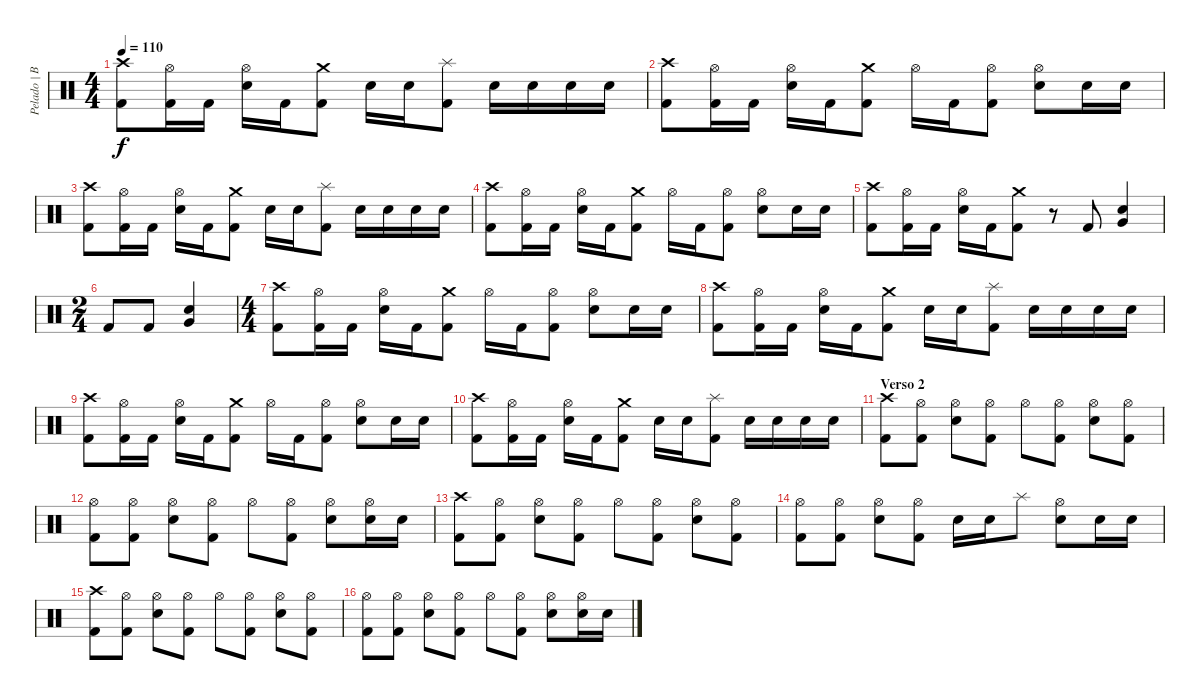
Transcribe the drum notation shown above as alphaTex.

\track ("Pelado | Bateria" "Pelado | B") {instrument percussion}
\staff {score}
\articulation defaults
\ts (4 4)
\tempo 110
\clef neutral
\ks c
("Crash high (hit)" "Kick (hit) 2").8{dy f} ("Hi-Hat (open)" "Kick (hit) 2").16 "Kick (hit) 2".16 ("Hi-Hat (open)" "Snare (hit) 2").16 "Kick (hit) 2".16 ("Crash medium (hit)" "Kick (hit) 2").8 "Snare (hit) 2".16 "Snare (hit) 2".16 ("Splash (hit)" "Kick (hit) 2").8 "Snare (hit) 2".16 "Snare (hit) 2".16 "Snare (hit) 2".16 "Snare (hit) 2".16 |
("Crash high (hit)" "Kick (hit) 2").8 ("Hi-Hat (open)" "Kick (hit) 2").16 "Kick (hit) 2".16 ("Hi-Hat (open)" "Snare (hit) 2").16 "Kick (hit) 2".16 ("Crash medium (hit)" "Kick (hit) 2").8 "Hi-Hat (open)".16 "Kick (hit) 2".16 ("Hi-Hat (open)" "Kick (hit) 2").8 ("Hi-Hat (open)" "Snare (hit) 2").8 "Snare (hit) 2".16 "Snare (hit) 2".16 |
("Crash high (hit)" "Kick (hit) 2").8 ("Hi-Hat (open)" "Kick (hit) 2").16 "Kick (hit) 2".16 ("Hi-Hat (open)" "Snare (hit) 2").16 "Kick (hit) 2".16 ("Crash medium (hit)" "Kick (hit) 2").8 "Snare (hit) 2".16 "Snare (hit) 2".16 ("Splash (hit)" "Kick (hit) 2").8 "Snare (hit) 2".16 "Snare (hit) 2".16 "Snare (hit) 2".16 "Snare (hit) 2".16 |
("Crash high (hit)" "Kick (hit) 2").8 ("Hi-Hat (open)" "Kick (hit) 2").16 "Kick (hit) 2".16 ("Hi-Hat (open)" "Snare (hit) 2").16 "Kick (hit) 2".16 ("Crash medium (hit)" "Kick (hit) 2").8 "Hi-Hat (open)".16 "Kick (hit) 2".16 ("Hi-Hat (open)" "Kick (hit) 2").8 ("Hi-Hat (open)" "Snare (hit) 2").8 "Snare (hit) 2".16 "Snare (hit) 2".16 |
("Crash high (hit)" "Kick (hit) 2").8 ("Hi-Hat (open)" "Kick (hit) 2").16 "Kick (hit) 2".16 ("Hi-Hat (open)" "Snare (hit) 2").16 "Kick (hit) 2".16 ("Crash medium (hit)" "Kick (hit) 2").8 r.8 "Kick (hit) 2".8 ("Very Low Tom (hit)" "Snare (hit) 2").4 |
\ts (2 4)
"Kick (hit) 2".8 "Kick (hit) 2".8 ("Very Low Tom (hit)" "Snare (hit) 2").4 |
\ts (4 4)
("Crash high (hit)" "Kick (hit) 2").8 ("Hi-Hat (open)" "Kick (hit) 2").16 "Kick (hit) 2".16 ("Hi-Hat (open)" "Snare (hit) 2").16 "Kick (hit) 2".16 ("Crash medium (hit)" "Kick (hit) 2").8 "Hi-Hat (open)".16 "Kick (hit) 2".16 ("Hi-Hat (open)" "Kick (hit) 2").8 ("Hi-Hat (open)" "Snare (hit) 2").8 "Snare (hit) 2".16 "Snare (hit) 2".16 |
("Crash high (hit)" "Kick (hit) 2").8 ("Hi-Hat (open)" "Kick (hit) 2").16 "Kick (hit) 2".16 ("Hi-Hat (open)" "Snare (hit) 2").16 "Kick (hit) 2".16 ("Crash medium (hit)" "Kick (hit) 2").8 "Snare (hit) 2".16 "Snare (hit) 2".16 ("Splash (hit)" "Kick (hit) 2").8 "Snare (hit) 2".16 "Snare (hit) 2".16 "Snare (hit) 2".16 "Snare (hit) 2".16 |
("Crash high (hit)" "Kick (hit) 2").8 ("Hi-Hat (open)" "Kick (hit) 2").16 "Kick (hit) 2".16 ("Hi-Hat (open)" "Snare (hit) 2").16 "Kick (hit) 2".16 ("Crash medium (hit)" "Kick (hit) 2").8 "Hi-Hat (open)".16 "Kick (hit) 2".16 ("Hi-Hat (open)" "Kick (hit) 2").8 ("Hi-Hat (open)" "Snare (hit) 2").8 "Snare (hit) 2".16 "Snare (hit) 2".16 |
("Crash high (hit)" "Kick (hit) 2").8 ("Hi-Hat (open)" "Kick (hit) 2").16 "Kick (hit) 2".16 ("Hi-Hat (open)" "Snare (hit) 2").16 "Kick (hit) 2".16 ("Crash medium (hit)" "Kick (hit) 2").8 "Snare (hit) 2".16 "Snare (hit) 2".16 ("Splash (hit)" "Kick (hit) 2").8 "Snare (hit) 2".16 "Snare (hit) 2".16 "Snare (hit) 2".16 "Snare (hit) 2".16 |
\section ("" "Verso 2")
("Crash high (hit)" "Kick (hit) 2").8 ("Hi-Hat (open)" "Kick (hit) 2").8 ("Hi-Hat (open)" "Snare (hit) 2").8 ("Hi-Hat (open)" "Kick (hit) 2").8 "Hi-Hat (open)".8 ("Hi-Hat (open)" "Kick (hit) 2").8 ("Hi-Hat (open)" "Snare (hit) 2").8 ("Hi-Hat (open)" "Kick (hit) 2").8 |
("Hi-Hat (open)" "Kick (hit) 2").8 ("Hi-Hat (open)" "Kick (hit) 2").8 ("Hi-Hat (open)" "Snare (hit) 2").8 ("Hi-Hat (open)" "Kick (hit) 2").8 "Hi-Hat (open)".8 ("Hi-Hat (open)" "Kick (hit) 2").8 ("Hi-Hat (open)" "Snare (hit) 2").8 ("Hi-Hat (open)" "Snare (hit) 2").16 "Snare (hit) 2".16 |
("Crash high (hit)" "Kick (hit) 2").8 ("Hi-Hat (open)" "Kick (hit) 2").8 ("Hi-Hat (open)" "Snare (hit) 2").8 ("Hi-Hat (open)" "Kick (hit) 2").8 "Hi-Hat (open)".8 ("Hi-Hat (open)" "Kick (hit) 2").8 ("Hi-Hat (open)" "Snare (hit) 2").8 ("Hi-Hat (open)" "Kick (hit) 2").8 |
("Hi-Hat (open)" "Kick (hit) 2").8 ("Hi-Hat (open)" "Kick (hit) 2").8 ("Hi-Hat (open)" "Snare (hit) 2").8 ("Hi-Hat (open)" "Kick (hit) 2").8 "Snare (hit) 2".16 "Snare (hit) 2".16 "Splash (hit)".8 ("Hi-Hat (open)" "Snare (hit) 2").8 "Snare (hit) 2".16 "Snare (hit) 2".16 |
("Crash high (hit)" "Kick (hit) 2").8 ("Hi-Hat (open)" "Kick (hit) 2").8 ("Hi-Hat (open)" "Snare (hit) 2").8 ("Hi-Hat (open)" "Kick (hit) 2").8 "Hi-Hat (open)".8 ("Hi-Hat (open)" "Kick (hit) 2").8 ("Hi-Hat (open)" "Snare (hit) 2").8 ("Hi-Hat (open)" "Kick (hit) 2").8 |
("Hi-Hat (open)" "Kick (hit) 2").8 ("Hi-Hat (open)" "Kick (hit) 2").8 ("Hi-Hat (open)" "Snare (hit) 2").8 ("Hi-Hat (open)" "Kick (hit) 2").8 "Hi-Hat (open)".8 ("Hi-Hat (open)" "Kick (hit) 2").8 ("Hi-Hat (open)" "Snare (hit) 2").8 ("Hi-Hat (open)" "Snare (hit) 2").16 "Snare (hit) 2".16
